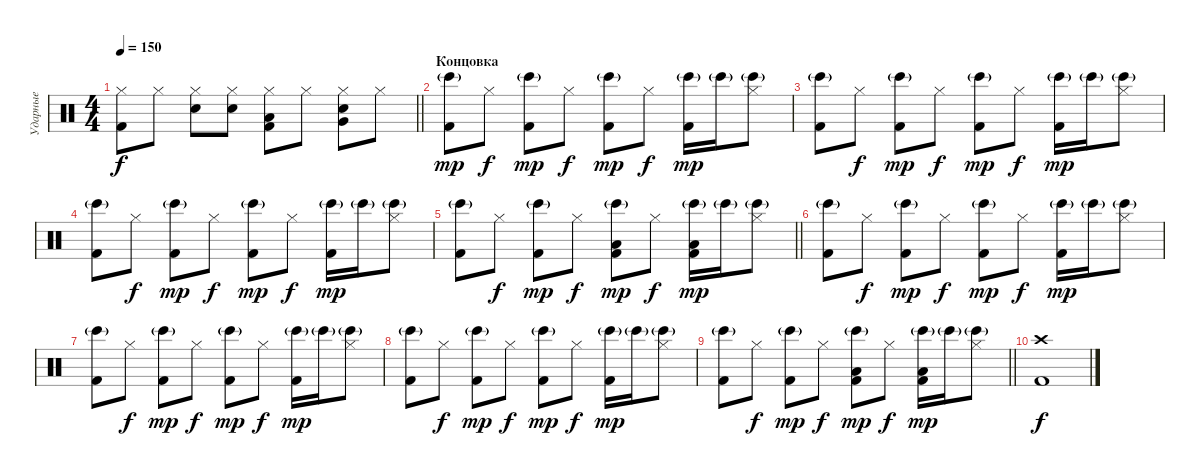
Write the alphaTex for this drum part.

\track ("Ударные" "Ударные") {instrument percussion}
\staff {score}
\articulation defaults
\ts (4 4)
\tempo 150
\clef neutral
\barLineRight lightlight
\ks c
("Kick (hit) 2" "Hi-Hat (closed)").8{dy f} "Hi-Hat (closed)".8 ("Snare (hit) 2" "Hi-Hat (closed)").8 ("Snare (hit) 2" "Hi-Hat (closed)").8 ("Kick (hit) 2" "Hi-Hat (closed)" "Low Tom (hit)").8 "Hi-Hat (closed)".8 ("Snare (hit) 2" "Hi-Hat (closed)" "Very Low Tom (hit)").8 "Hi-Hat (closed)".8 |
\section ("" "Концовка")
("Kick (hit) 2" "Bongo High (hit)"{g}).8{dy mp} "Hi-Hat (closed)".8{dy f} ("Kick (hit) 2" "Bongo High (hit)"{g}).8{dy mp} "Hi-Hat (closed)".8{dy f} ("Kick (hit) 2" "Bongo High (hit)"{g}).8{dy mp} "Hi-Hat (closed)".8{dy f} ("Kick (hit) 2" "Bongo High (hit)"{g}).16{dy mp} "Bongo High (hit)"{g}.16 ("Hi-Hat (closed)" "Bongo High (hit)"{g}).8 |
("Kick (hit) 2" "Bongo High (hit)"{g}).8 "Hi-Hat (closed)".8{dy f} ("Kick (hit) 2" "Bongo High (hit)"{g}).8{dy mp} "Hi-Hat (closed)".8{dy f} ("Kick (hit) 2" "Bongo High (hit)"{g}).8{dy mp} "Hi-Hat (closed)".8{dy f} ("Kick (hit) 2" "Bongo High (hit)"{g}).16{dy mp} "Bongo High (hit)"{g}.16 ("Hi-Hat (closed)" "Bongo High (hit)"{g}).8 |
("Kick (hit) 2" "Bongo High (hit)"{g}).8 "Hi-Hat (closed)".8{dy f} ("Kick (hit) 2" "Bongo High (hit)"{g}).8{dy mp} "Hi-Hat (closed)".8{dy f} ("Kick (hit) 2" "Bongo High (hit)"{g}).8{dy mp} "Hi-Hat (closed)".8{dy f} ("Kick (hit) 2" "Bongo High (hit)"{g}).16{dy mp} "Bongo High (hit)"{g}.16 ("Hi-Hat (closed)" "Bongo High (hit)"{g}).8 |
\barLineRight lightlight
("Kick (hit) 2" "Bongo High (hit)"{g}).8 "Hi-Hat (closed)".8{dy f} ("Kick (hit) 2" "Bongo High (hit)"{g}).8{dy mp} "Hi-Hat (closed)".8{dy f} ("Kick (hit) 2" "Bongo High (hit)"{g} "Low Tom (hit)").8{dy mp} "Hi-Hat (closed)".8{dy f} ("Kick (hit) 2" "Bongo High (hit)"{g} "Low Tom (hit)").16{dy mp} "Bongo High (hit)"{g}.16 ("Hi-Hat (closed)" "Bongo High (hit)"{g}).8 |
("Kick (hit) 2" "Bongo High (hit)"{g}).8 "Hi-Hat (closed)".8{dy f} ("Kick (hit) 2" "Bongo High (hit)"{g}).8{dy mp} "Hi-Hat (closed)".8{dy f} ("Kick (hit) 2" "Bongo High (hit)"{g}).8{dy mp} "Hi-Hat (closed)".8{dy f} ("Kick (hit) 2" "Bongo High (hit)"{g}).16{dy mp} "Bongo High (hit)"{g}.16 ("Hi-Hat (closed)" "Bongo High (hit)"{g}).8 |
("Kick (hit) 2" "Bongo High (hit)"{g}).8 "Hi-Hat (closed)".8{dy f} ("Kick (hit) 2" "Bongo High (hit)"{g}).8{dy mp} "Hi-Hat (closed)".8{dy f} ("Kick (hit) 2" "Bongo High (hit)"{g}).8{dy mp} "Hi-Hat (closed)".8{dy f} ("Kick (hit) 2" "Bongo High (hit)"{g}).16{dy mp} "Bongo High (hit)"{g}.16 ("Hi-Hat (closed)" "Bongo High (hit)"{g}).8 |
("Kick (hit) 2" "Bongo High (hit)"{g}).8 "Hi-Hat (closed)".8{dy f} ("Kick (hit) 2" "Bongo High (hit)"{g}).8{dy mp} "Hi-Hat (closed)".8{dy f} ("Kick (hit) 2" "Bongo High (hit)"{g}).8{dy mp} "Hi-Hat (closed)".8{dy f} ("Kick (hit) 2" "Bongo High (hit)"{g}).16{dy mp} "Bongo High (hit)"{g}.16 ("Hi-Hat (closed)" "Bongo High (hit)"{g}).8 |
\barLineRight lightlight
("Kick (hit) 2" "Bongo High (hit)"{g}).8 "Hi-Hat (closed)".8{dy f} ("Kick (hit) 2" "Bongo High (hit)"{g}).8{dy mp} "Hi-Hat (closed)".8{dy f} ("Kick (hit) 2" "Bongo High (hit)"{g} "Low Tom (hit)").8{dy mp} "Hi-Hat (closed)".8{dy f} ("Kick (hit) 2" "Bongo High (hit)"{g} "Low Tom (hit)").16{dy mp} "Bongo High (hit)"{g}.16 ("Hi-Hat (closed)" "Bongo High (hit)"{g}).8 |
("Kick (hit) 2" "Crash high (hit)").1{dy f}
